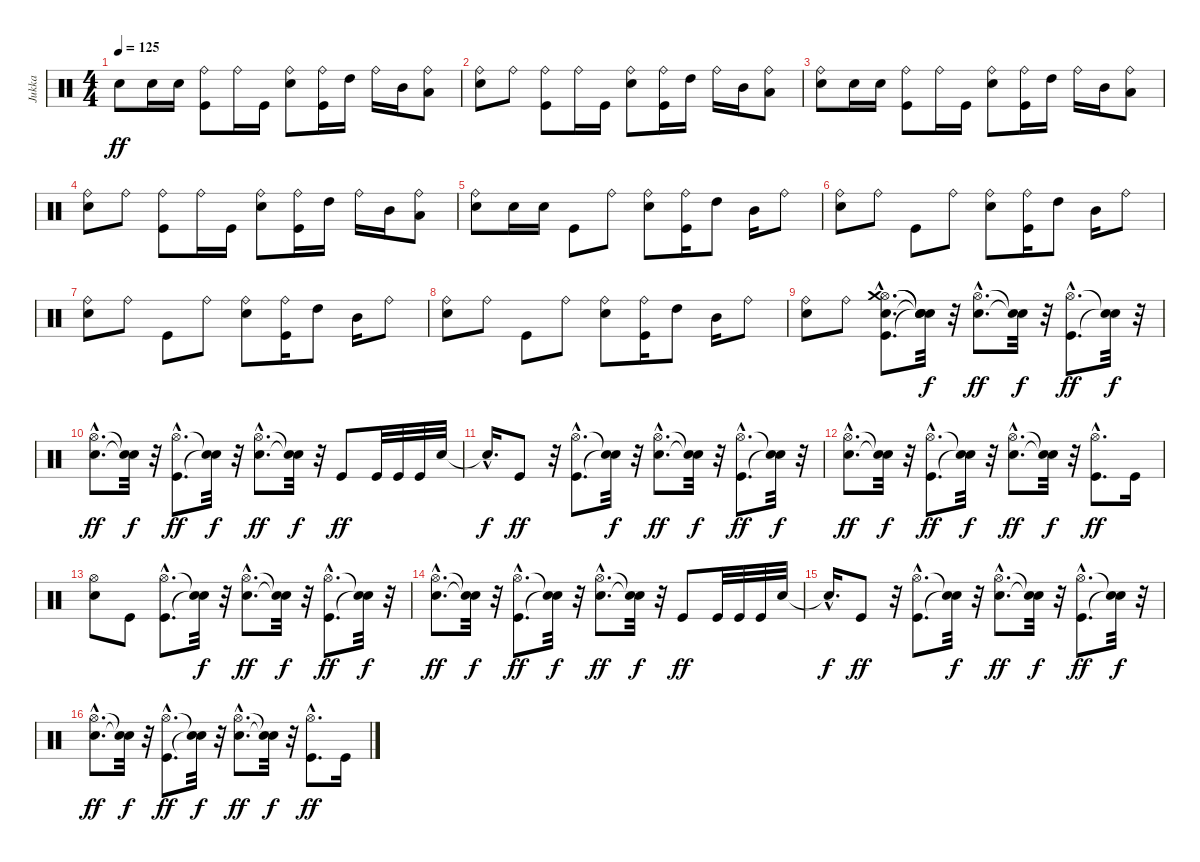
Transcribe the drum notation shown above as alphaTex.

\track ("Jukka" "Jukka") {instrument percussion}
\staff {score}
\articulation defaults
\ts (4 4)
\tempo 125
\clef neutral
\ks c "Electric Snare (hit)".8{dy ff} "Electric Snare (hit)".16 "Electric Snare (hit)".16
("Kick (hit)" "Ride (bell)").8 "Ride (bell)".16 "Kick (hit)".16 ("Electric Snare (hit)" "Ride (bell)").8 ("Kick (hit)" "Ride (bell)").16 "High Tom (hit)".16 "Ride (bell)".16 "Mid Tom (hit)".16 ("Low Tom (hit)" "Ride (bell)").8 |
("Electric Snare (hit)" "Ride (bell)").8 "Ride (bell)".8 ("Kick (hit)" "Ride (bell)").8 "Ride (bell)".16 "Kick (hit)".16 ("Electric Snare (hit)" "Ride (bell)").8 ("Kick (hit)" "Ride (bell)").16 "High Tom (hit)".16 "Ride (bell)".16 "Mid Tom (hit)".16 ("Low Tom (hit)" "Ride (bell)").8 |
("Electric Snare (hit)" "Ride (bell)").8 "Electric Snare (hit)".16 "Electric Snare (hit)".16 ("Kick (hit)" "Ride (bell)").8 "Ride (bell)".16 "Kick (hit)".16 ("Electric Snare (hit)" "Ride (bell)").8 ("Kick (hit)" "Ride (bell)").16 "High Tom (hit)".16 "Ride (bell)".16 "Mid Tom (hit)".16 ("Low Tom (hit)" "Ride (bell)").8 |
("Electric Snare (hit)" "Ride (bell)").8 "Ride (bell)".8 ("Kick (hit)" "Ride (bell)").8 "Ride (bell)".16 "Kick (hit)".16 ("Electric Snare (hit)" "Ride (bell)").8 ("Kick (hit)" "Ride (bell)").16 "High Tom (hit)".16 "Ride (bell)".16 "Mid Tom (hit)".16 ("Low Tom (hit)" "Ride (bell)").8 |
("Electric Snare (hit)" "Ride (bell)").8 "Electric Snare (hit)".16 "Electric Snare (hit)".16 "Kick (hit)".8 "Ride (bell)".8 ("Electric Snare (hit)" "Ride (bell)").8 ("Kick (hit)" "Ride (bell)").16 "High Tom (hit)".8 "Mid Tom (hit)".16 "Ride (bell)".8 |
("Electric Snare (hit)" "Ride (bell)").8 "Ride (bell)".8 "Kick (hit)".8 "Ride (bell)".8 ("Electric Snare (hit)" "Ride (bell)").8 ("Kick (hit)" "Ride (bell)").16 "High Tom (hit)".8 "Mid Tom (hit)".16 "Ride (bell)".8 |
("Electric Snare (hit)" "Ride (bell)").8 "Ride (bell)".8 "Kick (hit)".8 "Ride (bell)".8 ("Electric Snare (hit)" "Ride (bell)").8 ("Kick (hit)" "Ride (bell)").16 "High Tom (hit)".8 "Mid Tom (hit)".16 "Ride (bell)".8 |
("Electric Snare (hit)" "Ride (bell)").8 "Ride (bell)".8 "Kick (hit)".8 "Ride (bell)".8 ("Electric Snare (hit)" "Ride (bell)").8 ("Kick (hit)" "Ride (bell)").16 "High Tom (hit)".8 "Mid Tom (hit)".16 "Ride (bell)".8 |
("Electric Snare (hit)" "Ride (bell)").8 "Ride (bell)".8 ("Kick (hit)"{hac} "Electric Snare (hit)"{hac} "Hi-Hat (open)"{hac} "Crash medium (hit)"{hac}).8{d} ("Snare (hit)"{t} "Snare (hit)"{t} "Snare (hit)"{t} "Snare (hit)"{t}).32{dy f} r.32 ("Electric Snare (hit)"{hac} "Hi-Hat (open)"{hac}).8{d dy ff} ("Snare (hit)"{t} "Snare (hit)"{t}).32{dy f} r.32 ("Kick (hit)"{hac} "Hi-Hat (open)"{hac}).8{d dy ff} ("Snare (hit)"{t} "Snare (hit)"{t}).32{dy f} r.32 |
("Electric Snare (hit)"{hac} "Hi-Hat (open)"{hac}).8{d dy ff} ("Snare (hit)"{t} "Snare (hit)"{t}).32{dy f} r.32 ("Kick (hit)"{hac} "Hi-Hat (open)"{hac}).8{d dy ff} ("Snare (hit)"{t} "Snare (hit)"{t}).32{dy f} r.32 ("Electric Snare (hit)"{hac} "Hi-Hat (open)"{hac}).8{d dy ff} ("Snare (hit)"{t} "Snare (hit)"{t}).32{dy f} r.32 "Kick (hit)".8{dy ff} "Kick (hit)".32 "Kick (hit)".32 "Kick (hit)".32 "Electric Snare (hit)".32 |
"Snare (hit)"{hac t}.16{d dy f} "Kick (hit)".8{dy ff} r.32 ("Kick (hit)"{hac} "Hi-Hat (open)"{hac}).8{d} ("Snare (hit)"{t} "Snare (hit)"{t}).32{dy f} r.32 ("Electric Snare (hit)"{hac} "Hi-Hat (open)"{hac}).8{d dy ff} ("Snare (hit)"{t} "Snare (hit)"{t}).32{dy f} r.32 ("Kick (hit)"{hac} "Hi-Hat (open)"{hac}).8{d dy ff} ("Snare (hit)"{t} "Snare (hit)"{t}).32{dy f} r.32 |
("Electric Snare (hit)"{hac} "Hi-Hat (open)"{hac}).8{d dy ff} ("Snare (hit)"{t} "Snare (hit)"{t}).32{dy f} r.32 ("Kick (hit)"{hac} "Hi-Hat (open)"{hac}).8{d dy ff} ("Snare (hit)"{t} "Snare (hit)"{t}).32{dy f} r.32 ("Electric Snare (hit)"{hac} "Hi-Hat (open)"{hac}).8{d dy ff} ("Snare (hit)"{t} "Snare (hit)"{t}).32{dy f} r.32 ("Kick (hit)"{hac} "Hi-Hat (open)"{hac}).8{d dy ff} "Kick (hit)".16 |
("Electric Snare (hit)" "Hi-Hat (open)").8 "Kick (hit)".8 ("Kick (hit)"{hac} "Hi-Hat (open)"{hac}).8{d} ("Snare (hit)"{t} "Snare (hit)"{t}).32{dy f} r.32 ("Electric Snare (hit)"{hac} "Hi-Hat (open)"{hac}).8{d dy ff} ("Snare (hit)"{t} "Snare (hit)"{t}).32{dy f} r.32 ("Kick (hit)"{hac} "Hi-Hat (open)"{hac}).8{d dy ff} ("Snare (hit)"{t} "Snare (hit)"{t}).32{dy f} r.32 |
("Electric Snare (hit)"{hac} "Hi-Hat (open)"{hac}).8{d dy ff} ("Snare (hit)"{t} "Snare (hit)"{t}).32{dy f} r.32 ("Kick (hit)"{hac} "Hi-Hat (open)"{hac}).8{d dy ff} ("Snare (hit)"{t} "Snare (hit)"{t}).32{dy f} r.32 ("Electric Snare (hit)"{hac} "Hi-Hat (open)"{hac}).8{d dy ff} ("Snare (hit)"{t} "Snare (hit)"{t}).32{dy f} r.32 "Kick (hit)".8{dy ff} "Kick (hit)".32 "Kick (hit)".32 "Kick (hit)".32 "Electric Snare (hit)".32 |
"Snare (hit)"{hac t}.16{d dy f} "Kick (hit)".8{dy ff} r.32 ("Kick (hit)"{hac} "Hi-Hat (open)"{hac}).8{d} ("Snare (hit)"{t} "Snare (hit)"{t}).32{dy f} r.32 ("Electric Snare (hit)"{hac} "Hi-Hat (open)"{hac}).8{d dy ff} ("Snare (hit)"{t} "Snare (hit)"{t}).32{dy f} r.32 ("Kick (hit)"{hac} "Hi-Hat (open)"{hac}).8{d dy ff} ("Snare (hit)"{t} "Snare (hit)"{t}).32{dy f} r.32 |
("Electric Snare (hit)"{hac} "Hi-Hat (open)"{hac}).8{d dy ff} ("Snare (hit)"{t} "Snare (hit)"{t}).32{dy f} r.32 ("Kick (hit)"{hac} "Hi-Hat (open)"{hac}).8{d dy ff} ("Snare (hit)"{t} "Snare (hit)"{t}).32{dy f} r.32 ("Electric Snare (hit)"{hac} "Hi-Hat (open)"{hac}).8{d dy ff} ("Snare (hit)"{t} "Snare (hit)"{t}).32{dy f} r.32 ("Kick (hit)"{hac} "Hi-Hat (open)"{hac}).8{d dy ff} "Kick (hit)".16
